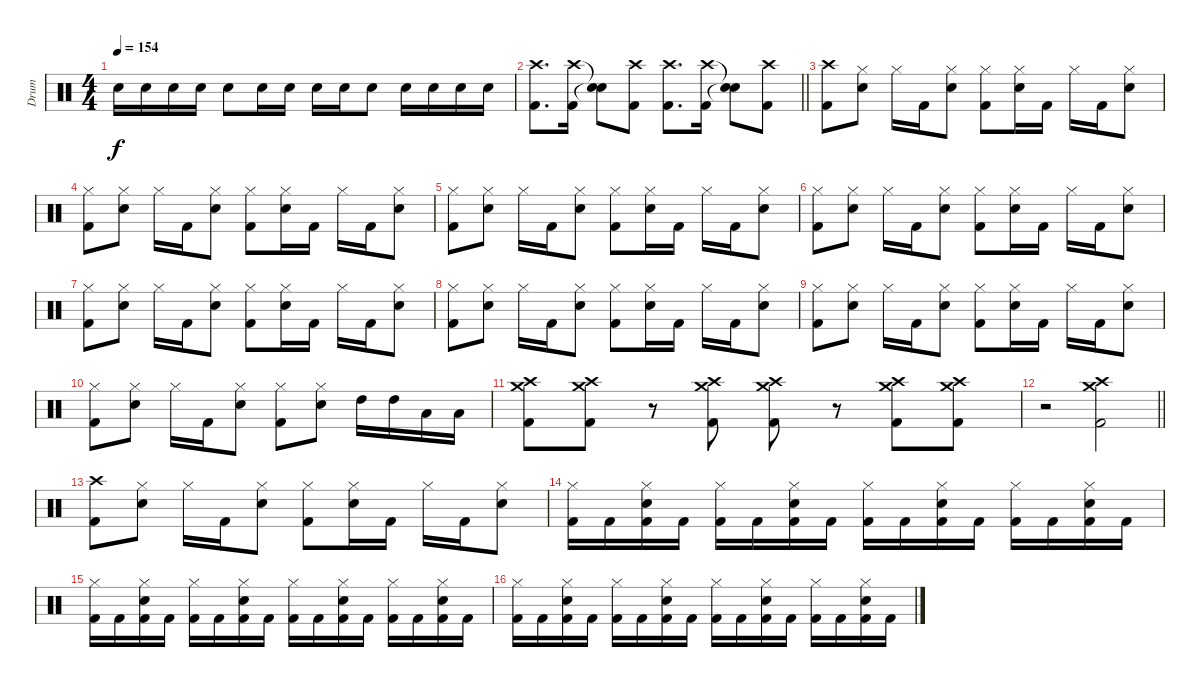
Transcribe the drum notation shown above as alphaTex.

\track ("Drum" "Drum") {instrument percussion}
\staff {score}
\articulation defaults
\ts (4 4)
\tempo 154
\clef neutral
\ks c "Snare (hit) 2".16{dy f} "Snare (hit) 2".16 "Snare (hit) 2".16 "Snare (hit) 2".16 "Snare (hit) 2".8 "Snare (hit) 2".16 "Snare (hit) 2".16 "Snare (hit) 2".16 "Snare (hit) 2".16 "Snare (hit) 2".8 "Snare (hit) 2".16 "Snare (hit) 2".16 "Snare (hit) 2".16 "Snare (hit) 2".16
|
\barLineRight lightlight
("Crash high (hit)" "Kick (hit) 2").8{d} ("Crash high (hit)" "Kick (hit) 2").16 ("Snare (hit)"{t} "Snare (hit)"{t}).8 ("Crash high (hit)" "Kick (hit) 2").8 ("Crash high (hit)" "Kick (hit) 2").8{d} ("Crash high (hit)" "Kick (hit) 2").16 ("Snare (hit)"{t} "Snare (hit)"{t}).8 ("Crash high (hit)" "Kick (hit) 2").8 |
("Crash high (hit)" "Kick (hit) 2").8 ("Hi-Hat (closed)" "Snare (hit) 2").8 "Hi-Hat (closed)".16 "Kick (hit) 2".16 ("Hi-Hat (closed)" "Snare (hit) 2").8 ("Hi-Hat (closed)" "Kick (hit) 2").8 ("Hi-Hat (closed)" "Snare (hit) 2").16 "Kick (hit) 2".16 "Hi-Hat (closed)".16 "Kick (hit) 2".16 ("Hi-Hat (closed)" "Snare (hit) 2").8 |
("Hi-Hat (closed)" "Kick (hit) 2").8 ("Hi-Hat (closed)" "Snare (hit) 2").8 "Hi-Hat (closed)".16 "Kick (hit) 2".16 ("Hi-Hat (closed)" "Snare (hit) 2").8 ("Hi-Hat (closed)" "Kick (hit) 2").8 ("Hi-Hat (closed)" "Snare (hit) 2").16 "Kick (hit) 2".16 "Hi-Hat (closed)".16 "Kick (hit) 2".16 ("Hi-Hat (closed)" "Snare (hit) 2").8 |
("Hi-Hat (closed)" "Kick (hit) 2").8 ("Hi-Hat (closed)" "Snare (hit) 2").8 "Hi-Hat (closed)".16 "Kick (hit) 2".16 ("Hi-Hat (closed)" "Snare (hit) 2").8 ("Hi-Hat (closed)" "Kick (hit) 2").8 ("Hi-Hat (closed)" "Snare (hit) 2").16 "Kick (hit) 2".16 "Hi-Hat (closed)".16 "Kick (hit) 2".16 ("Hi-Hat (closed)" "Snare (hit) 2").8 |
("Hi-Hat (closed)" "Kick (hit) 2").8 ("Hi-Hat (closed)" "Snare (hit) 2").8 "Hi-Hat (closed)".16 "Kick (hit) 2".16 ("Hi-Hat (closed)" "Snare (hit) 2").8 ("Hi-Hat (closed)" "Kick (hit) 2").8 ("Hi-Hat (closed)" "Snare (hit) 2").16 "Kick (hit) 2".16 "Hi-Hat (closed)".16 "Kick (hit) 2".16 ("Hi-Hat (closed)" "Snare (hit) 2").8 |
("Hi-Hat (closed)" "Kick (hit) 2").8 ("Hi-Hat (closed)" "Snare (hit) 2").8 "Hi-Hat (closed)".16 "Kick (hit) 2".16 ("Hi-Hat (closed)" "Snare (hit) 2").8 ("Hi-Hat (closed)" "Kick (hit) 2").8 ("Hi-Hat (closed)" "Snare (hit) 2").16 "Kick (hit) 2".16 "Hi-Hat (closed)".16 "Kick (hit) 2".16 ("Hi-Hat (closed)" "Snare (hit) 2").8 |
("Hi-Hat (closed)" "Kick (hit) 2").8 ("Hi-Hat (closed)" "Snare (hit) 2").8 "Hi-Hat (closed)".16 "Kick (hit) 2".16 ("Hi-Hat (closed)" "Snare (hit) 2").8 ("Hi-Hat (closed)" "Kick (hit) 2").8 ("Hi-Hat (closed)" "Snare (hit) 2").16 "Kick (hit) 2".16 "Hi-Hat (closed)".16 "Kick (hit) 2".16 ("Hi-Hat (closed)" "Snare (hit) 2").8 |
("Hi-Hat (closed)" "Kick (hit) 2").8 ("Hi-Hat (closed)" "Snare (hit) 2").8 "Hi-Hat (closed)".16 "Kick (hit) 2".16 ("Hi-Hat (closed)" "Snare (hit) 2").8 ("Hi-Hat (closed)" "Kick (hit) 2").8 ("Hi-Hat (closed)" "Snare (hit) 2").16 "Kick (hit) 2".16 "Hi-Hat (closed)".16 "Kick (hit) 2".16 ("Hi-Hat (closed)" "Snare (hit) 2").8 |
("Hi-Hat (closed)" "Kick (hit) 2").8 ("Hi-Hat (closed)" "Snare (hit) 2").8 "Hi-Hat (closed)".16 "Kick (hit) 2".16 ("Hi-Hat (closed)" "Snare (hit) 2").8 ("Hi-Hat (closed)" "Kick (hit) 2").8 ("Hi-Hat (closed)" "Snare (hit) 2").8 "High Tom (hit)".16 "High Tom (hit)".16 "Low Tom (hit)".16 "Low Tom (hit)".16 |
("Crash high (hit)" "Crash medium (hit)" "Kick (hit) 2").8 ("Crash high (hit)" "Crash medium (hit)" "Kick (hit) 2").8 r.8 ("Crash high (hit)" "Crash medium (hit)" "Kick (hit) 2").8 ("Crash high (hit)" "Crash medium (hit)" "Kick (hit) 2").8 r.8 ("Crash high (hit)" "Crash medium (hit)" "Kick (hit) 2").8 ("Crash high (hit)" "Crash medium (hit)" "Kick (hit) 2").8 |
\barLineRight lightlight
r.2 ("Crash high (hit)" "Crash medium (hit)" "Kick (hit) 2").2 |
("Crash high (hit)" "Kick (hit) 2").8 ("Hi-Hat (closed)" "Snare (hit) 2").8 "Hi-Hat (closed)".16 "Kick (hit) 2".16 ("Hi-Hat (closed)" "Snare (hit) 2").8 ("Hi-Hat (closed)" "Kick (hit) 2").8 ("Hi-Hat (closed)" "Snare (hit) 2").16 "Kick (hit) 2".16 "Hi-Hat (closed)".16 "Kick (hit) 2".16 ("Hi-Hat (closed)" "Snare (hit) 2").8 |
("Hi-Hat (closed)" "Kick (hit) 2").16 "Kick (hit) 2".16 ("Hi-Hat (closed)" "Snare (hit) 2" "Kick (hit) 2").16 "Kick (hit) 2".16 ("Hi-Hat (closed)" "Kick (hit) 2").16 "Kick (hit) 2".16 ("Hi-Hat (closed)" "Snare (hit) 2" "Kick (hit) 2").16 "Kick (hit) 2".16 ("Hi-Hat (closed)" "Kick (hit) 2").16 "Kick (hit) 2".16 ("Hi-Hat (closed)" "Snare (hit) 2" "Kick (hit) 2").16 "Kick (hit) 2".16 ("Hi-Hat (closed)" "Kick (hit) 2").16 "Kick (hit) 2".16 ("Hi-Hat (closed)" "Snare (hit) 2" "Kick (hit) 2").16 "Kick (hit) 2".16 |
("Hi-Hat (closed)" "Kick (hit) 2").16 "Kick (hit) 2".16 ("Hi-Hat (closed)" "Snare (hit) 2" "Kick (hit) 2").16 "Kick (hit) 2".16 ("Hi-Hat (closed)" "Kick (hit) 2").16 "Kick (hit) 2".16 ("Hi-Hat (closed)" "Snare (hit) 2" "Kick (hit) 2").16 "Kick (hit) 2".16 ("Hi-Hat (closed)" "Kick (hit) 2").16 "Kick (hit) 2".16 ("Hi-Hat (closed)" "Snare (hit) 2" "Kick (hit) 2").16 "Kick (hit) 2".16 ("Hi-Hat (closed)" "Kick (hit) 2").16 "Kick (hit) 2".16 ("Hi-Hat (closed)" "Snare (hit) 2" "Kick (hit) 2").16 "Kick (hit) 2".16 |
("Hi-Hat (closed)" "Kick (hit) 2").16 "Kick (hit) 2".16 ("Hi-Hat (closed)" "Snare (hit) 2" "Kick (hit) 2").16 "Kick (hit) 2".16 ("Hi-Hat (closed)" "Kick (hit) 2").16 "Kick (hit) 2".16 ("Hi-Hat (closed)" "Snare (hit) 2" "Kick (hit) 2").16 "Kick (hit) 2".16 ("Hi-Hat (closed)" "Kick (hit) 2").16 "Kick (hit) 2".16 ("Hi-Hat (closed)" "Snare (hit) 2" "Kick (hit) 2").16 "Kick (hit) 2".16 ("Hi-Hat (closed)" "Kick (hit) 2").16 "Kick (hit) 2".16 ("Hi-Hat (closed)" "Snare (hit) 2" "Kick (hit) 2").16 "Kick (hit) 2".16
